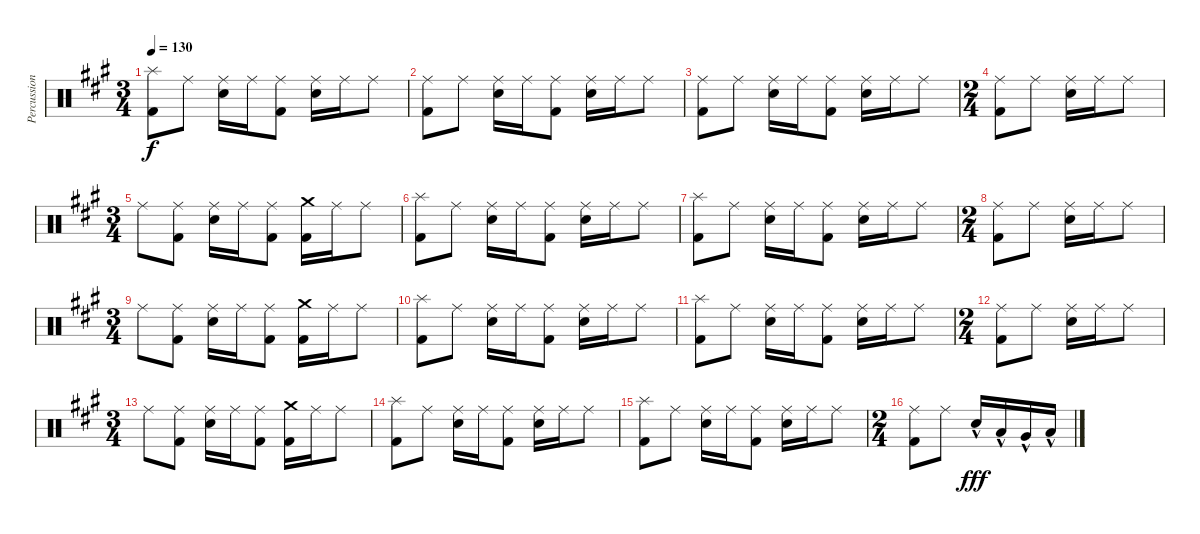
\track ("Percussion" "Percussion") {instrument percussion bank 110}
\staff {score}
\articulation defaults
\ts (3 4)
\tempo 130
\clef neutral
\ks a
("Kick (hit) 2" "Splash (hit)").8{dy f} "Ride (middle)".8 ("Electric Snare (hit)" "Ride (middle)").16 "Ride (middle)".16 ("Kick (hit) 2" "Ride (middle)").8 ("Electric Snare (hit)" "Ride (middle)").16 "Ride (middle)".16 "Ride (middle)".8 |
("Kick (hit) 2" "Ride (middle)").8 "Ride (middle)".8 ("Electric Snare (hit)" "Ride (middle)").16 "Ride (middle)".16 ("Kick (hit) 2" "Ride (middle)").8 ("Electric Snare (hit)" "Ride (middle)").16 "Ride (middle)".16 "Ride (middle)".8 |
("Kick (hit) 2" "Ride (middle)").8 "Ride (middle)".8 ("Electric Snare (hit)" "Ride (middle)").16 "Ride (middle)".16 ("Kick (hit) 2" "Ride (middle)").8 ("Electric Snare (hit)" "Ride (middle)").16 "Ride (middle)".16 "Ride (middle)".8 |
\ts (2 4)
("Kick (hit) 2" "Ride (middle)").8 "Ride (middle)".8 ("Electric Snare (hit)" "Ride (middle)").16 "Ride (middle)".16 "Ride (middle)".8 |
\ts (3 4)
"Ride (middle)".8 ("Kick (hit) 2" "Ride (middle)").8 ("Electric Snare (hit)" "Ride (middle)").16 "Ride (middle)".16 ("Kick (hit) 2" "Ride (middle)").8 ("Kick (hit) 2" "Crash medium (hit)").16 "Ride (middle)".16 "Ride (middle)".8 |
("Kick (hit) 2" "Splash (hit)").8 "Ride (middle)".8 ("Electric Snare (hit)" "Ride (middle)").16 "Ride (middle)".16 ("Kick (hit) 2" "Ride (middle)").8 ("Electric Snare (hit)" "Ride (middle)").16 "Ride (middle)".16 "Ride (middle)".8 |
("Kick (hit) 2" "Splash (hit)").8 "Ride (middle)".8 ("Electric Snare (hit)" "Ride (middle)").16 "Ride (middle)".16 ("Kick (hit) 2" "Ride (middle)").8 ("Electric Snare (hit)" "Ride (middle)").16 "Ride (middle)".16 "Ride (middle)".8 |
\ts (2 4)
("Kick (hit) 2" "Ride (middle)").8 "Ride (middle)".8 ("Electric Snare (hit)" "Ride (middle)").16 "Ride (middle)".16 "Ride (middle)".8 |
\ts (3 4)
"Ride (middle)".8 ("Kick (hit) 2" "Ride (middle)").8 ("Electric Snare (hit)" "Ride (middle)").16 "Ride (middle)".16 ("Kick (hit) 2" "Ride (middle)").8 ("Kick (hit) 2" "Crash medium (hit)").16 "Ride (middle)".16 "Ride (middle)".8 |
("Kick (hit) 2" "Splash (hit)").8 "Ride (middle)".8 ("Electric Snare (hit)" "Ride (middle)").16 "Ride (middle)".16 ("Kick (hit) 2" "Ride (middle)").8 ("Electric Snare (hit)" "Ride (middle)").16 "Ride (middle)".16 "Ride (middle)".8 |
("Kick (hit) 2" "Splash (hit)").8 "Ride (middle)".8 ("Electric Snare (hit)" "Ride (middle)").16 "Ride (middle)".16 ("Kick (hit) 2" "Ride (middle)").8 ("Electric Snare (hit)" "Ride (middle)").16 "Ride (middle)".16 "Ride (middle)".8 |
\ts (2 4)
("Kick (hit) 2" "Ride (middle)").8 "Ride (middle)".8 ("Electric Snare (hit)" "Ride (middle)").16 "Ride (middle)".16 "Ride (middle)".8 |
\ts (3 4)
"Ride (middle)".8 ("Kick (hit) 2" "Ride (middle)").8 ("Electric Snare (hit)" "Ride (middle)").16 "Ride (middle)".16 ("Kick (hit) 2" "Ride (middle)").8 ("Kick (hit) 2" "Crash medium (hit)").16 "Ride (middle)".16 "Ride (middle)".8 |
("Kick (hit) 2" "Splash (hit)").8 "Ride (middle)".8 ("Electric Snare (hit)" "Ride (middle)").16 "Ride (middle)".16 ("Kick (hit) 2" "Ride (middle)").8 ("Electric Snare (hit)" "Ride (middle)").16 "Ride (middle)".16 "Ride (middle)".8 |
("Kick (hit) 2" "Splash (hit)").8 "Ride (middle)".8 ("Electric Snare (hit)" "Ride (middle)").16 "Ride (middle)".16 ("Kick (hit) 2" "Ride (middle)").8 ("Electric Snare (hit)" "Ride (middle)").16 "Ride (middle)".16 "Ride (middle)".8 |
\ts (2 4)
("Kick (hit) 2" "Ride (middle)").8 "Ride (middle)".8 "Electric Snare (hit)"{hac}.16{dy fff} "Low Tom (hit)"{hac}.16 "Very Low Tom (hit)"{hac}.16 "Low Floor Tom (hit)"{hac}.16
